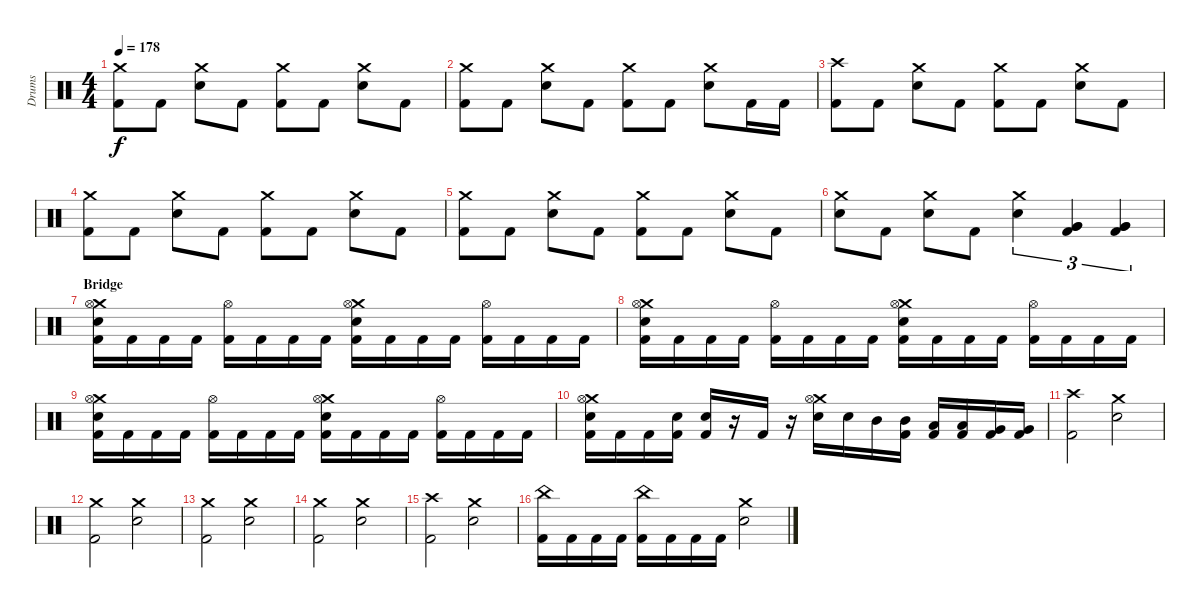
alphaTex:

\track ("Drums" "Drums") {instrument percussion}
\staff {score}
\articulation defaults
\ts (4 4)
\tempo 178
\clef neutral
\ks c
("Crash medium (hit)" "Kick (hit) 2").8{dy f} "Kick (hit) 2".8 ("Crash medium (hit)" "Electric Snare (hit)").8 "Kick (hit) 2".8 ("Crash medium (hit)" "Kick (hit) 2").8 "Kick (hit) 2".8 ("Crash medium (hit)" "Electric Snare (hit)").8 "Kick (hit) 2".8 |
("Crash medium (hit)" "Kick (hit) 2").8 "Kick (hit) 2".8 ("Crash medium (hit)" "Electric Snare (hit)").8 "Kick (hit) 2".8 ("Crash medium (hit)" "Kick (hit) 2").8 "Kick (hit) 2".8 ("Crash medium (hit)" "Electric Snare (hit)").8 "Kick (hit) 2".16 "Kick (hit) 2".16 |
("Crash high (hit)" "Kick (hit) 2").8 "Kick (hit) 2".8 ("Crash medium (hit)" "Electric Snare (hit)").8 "Kick (hit) 2".8 ("Crash medium (hit)" "Kick (hit) 2").8 "Kick (hit) 2".8 ("Crash medium (hit)" "Electric Snare (hit)").8 "Kick (hit) 2".8 |
("Crash medium (hit)" "Kick (hit) 2").8 "Kick (hit) 2".8 ("Crash medium (hit)" "Electric Snare (hit)").8 "Kick (hit) 2".8 ("Crash medium (hit)" "Kick (hit) 2").8 "Kick (hit) 2".8 ("Crash medium (hit)" "Electric Snare (hit)").8 "Kick (hit) 2".8 |
("Crash medium (hit)" "Kick (hit) 2").8 "Kick (hit) 2".8 ("Crash medium (hit)" "Electric Snare (hit)").8 "Kick (hit) 2".8 ("Crash medium (hit)" "Kick (hit) 2").8 "Kick (hit) 2".8 ("Crash medium (hit)" "Electric Snare (hit)").8 "Kick (hit) 2".8 |
("Crash medium (hit)" "Electric Snare (hit)").8 "Kick (hit) 2".8 ("Crash medium (hit)" "Electric Snare (hit)").8 "Kick (hit) 2".8 ("Crash medium (hit)" "Electric Snare (hit)").4{tu (3 2)} ("Very Low Tom (hit)" "Very Low Tom (hit)" "Kick (hit) 2").4{tu (3 2)} ("Very Low Tom (hit)" "Very Low Tom (hit)" "Kick (hit) 2").4{tu (3 2)} |
\section ("" "Bridge")
("Crash medium (hit)" "Hi-Hat (open)" "Electric Snare (hit)" "Kick (hit) 2").16 "Kick (hit) 2".16 "Kick (hit) 2".16 "Kick (hit) 2".16 ("Hi-Hat (open)" "Kick (hit) 2").16 "Kick (hit) 2".16 "Kick (hit) 2".16 "Kick (hit) 2".16 ("Crash medium (hit)" "Hi-Hat (open)" "Electric Snare (hit)" "Kick (hit) 2").16 "Kick (hit) 2".16 "Kick (hit) 2".16 "Kick (hit) 2".16 ("Hi-Hat (open)" "Kick (hit) 2").16 "Kick (hit) 2".16 "Kick (hit) 2".16 "Kick (hit) 2".16 |
("Crash medium (hit)" "Hi-Hat (open)" "Electric Snare (hit)" "Kick (hit) 2").16 "Kick (hit) 2".16 "Kick (hit) 2".16 "Kick (hit) 2".16 ("Hi-Hat (open)" "Kick (hit) 2").16 "Kick (hit) 2".16 "Kick (hit) 2".16 "Kick (hit) 2".16 ("Crash medium (hit)" "Hi-Hat (open)" "Electric Snare (hit)" "Kick (hit) 2").16 "Kick (hit) 2".16 "Kick (hit) 2".16 "Kick (hit) 2".16 ("Hi-Hat (open)" "Kick (hit) 2").16 "Kick (hit) 2".16 "Kick (hit) 2".16 "Kick (hit) 2".16 |
("Crash medium (hit)" "Hi-Hat (open)" "Electric Snare (hit)" "Kick (hit) 2").16 "Kick (hit) 2".16 "Kick (hit) 2".16 "Kick (hit) 2".16 ("Hi-Hat (open)" "Kick (hit) 2").16 "Kick (hit) 2".16 "Kick (hit) 2".16 "Kick (hit) 2".16 ("Crash medium (hit)" "Hi-Hat (open)" "Electric Snare (hit)" "Kick (hit) 2").16 "Kick (hit) 2".16 "Kick (hit) 2".16 "Kick (hit) 2".16 ("Hi-Hat (open)" "Kick (hit) 2").16 "Kick (hit) 2".16 "Kick (hit) 2".16 "Kick (hit) 2".16 |
("Crash medium (hit)" "Hi-Hat (open)" "Electric Snare (hit)" "Kick (hit) 2").16 "Kick (hit) 2".16 "Kick (hit) 2".16 ("Electric Snare (hit)" "Kick (hit) 2").16 ("Electric Snare (hit)" "Kick (hit) 2").16 r.16 "Kick (hit) 2".16 r.16 ("Crash medium (hit)" "Hi-Hat (open)" "Electric Snare (hit)").16 "Electric Snare (hit)".16 "Mid Tom (hit)".16 ("Mid Tom (hit)" "Kick (hit) 2").16 ("Low Tom (hit)" "Kick (hit) 2").16 ("Low Tom (hit)" "Kick (hit) 2").16 ("Very Low Tom (hit)" "Kick (hit) 2").16 ("Very Low Tom (hit)" "Kick (hit) 2").16 |
("Crash high (hit)" "Kick (hit) 2").2 ("Crash medium (hit)" "Electric Snare (hit)").2 |
("Crash medium (hit)" "Kick (hit) 2").2 ("Crash medium (hit)" "Electric Snare (hit)").2 |
("Crash medium (hit)" "Kick (hit) 2").2 ("Crash medium (hit)" "Electric Snare (hit)").2 |
("Crash medium (hit)" "Kick (hit) 2").2 ("Crash medium (hit)" "Electric Snare (hit)").2 |
("Crash high (hit)" "Kick (hit) 2").2 ("Crash medium (hit)" "Electric Snare (hit)").2 |
("China (hit)" "Kick (hit) 2").16 "Kick (hit) 2".16 "Kick (hit) 2".16 "Kick (hit) 2".16 ("China (hit)" "Kick (hit) 2").16 "Kick (hit) 2".16 "Kick (hit) 2".16 "Kick (hit) 2".16 ("Crash medium (hit)" "Electric Snare (hit)").2
